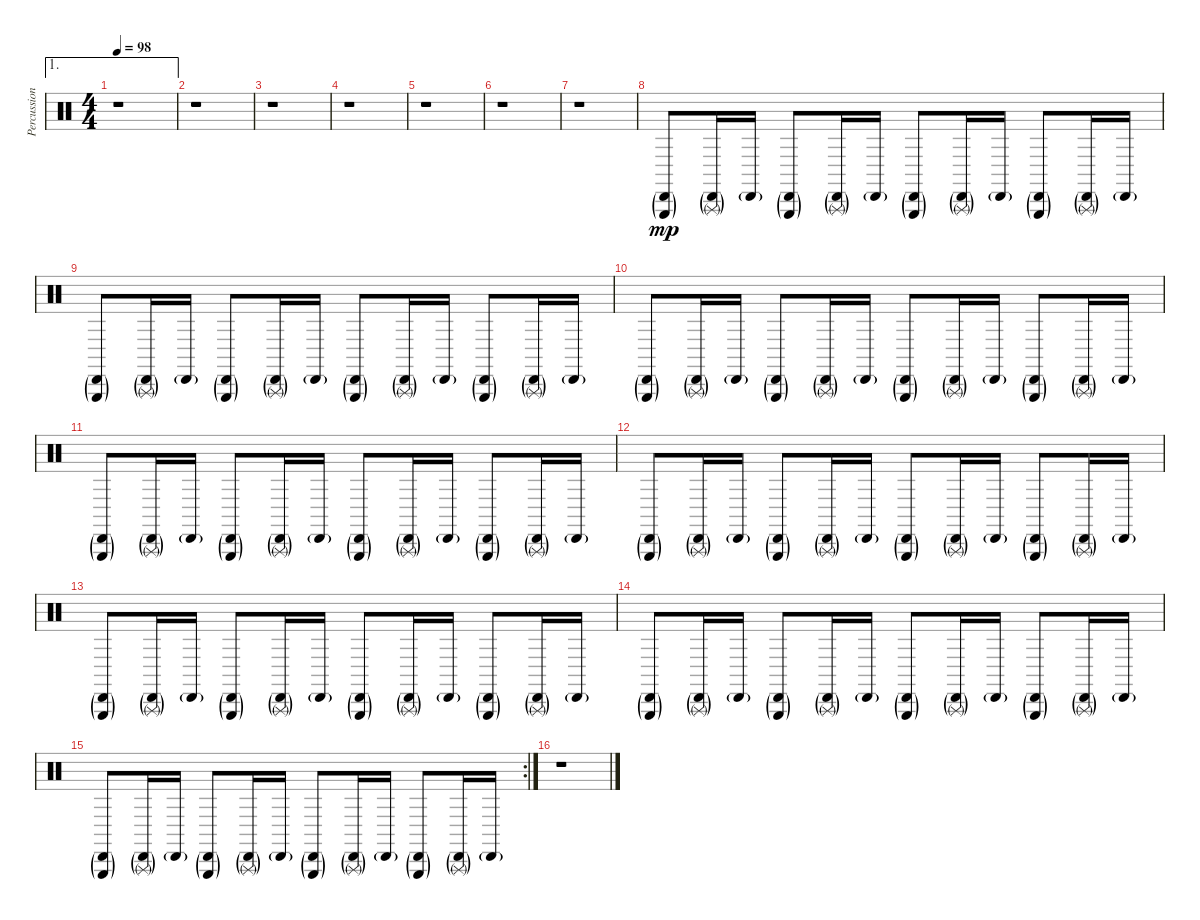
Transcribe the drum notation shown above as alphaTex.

\track ("Percussion" "Percussion") {instrument percussion}
\staff {score}
\articulation defaults
\ae 1
\ts (4 4)
\tempo 98
\clef neutral
\ks c
r.1{dy mp} |
r.1 |
r.1 |
r.1 |
r.1 |
r.1 |
r.1 |
("Cabasa (hit)"{g} "Triangle (hit)"{g}).8 ("Cabasa (hit)"{g} "Triangle (rnute)"{g}).16 "Cabasa (hit)"{g}.16 ("Cabasa (hit)"{g} "Triangle (hit)"{g}).8 ("Cabasa (hit)"{g} "Triangle (rnute)"{g}).16 "Cabasa (hit)"{g}.16 ("Cabasa (hit)"{g} "Triangle (hit)"{g}).8 ("Cabasa (hit)"{g} "Triangle (rnute)"{g}).16 "Cabasa (hit)"{g}.16 ("Cabasa (hit)"{g} "Triangle (hit)"{g}).8 ("Cabasa (hit)"{g} "Triangle (rnute)"{g}).16 "Cabasa (hit)"{g}.16 |
("Cabasa (hit)"{g} "Triangle (hit)"{g}).8 ("Cabasa (hit)"{g} "Triangle (rnute)"{g}).16 "Cabasa (hit)"{g}.16 ("Cabasa (hit)"{g} "Triangle (hit)"{g}).8 ("Cabasa (hit)"{g} "Triangle (rnute)"{g}).16 "Cabasa (hit)"{g}.16 ("Cabasa (hit)"{g} "Triangle (hit)"{g}).8 ("Cabasa (hit)"{g} "Triangle (rnute)"{g}).16 "Cabasa (hit)"{g}.16 ("Cabasa (hit)"{g} "Triangle (hit)"{g}).8 ("Cabasa (hit)"{g} "Triangle (rnute)"{g}).16 "Cabasa (hit)"{g}.16 |
("Cabasa (hit)"{g} "Triangle (hit)"{g}).8 ("Cabasa (hit)"{g} "Triangle (rnute)"{g}).16 "Cabasa (hit)"{g}.16 ("Cabasa (hit)"{g} "Triangle (hit)"{g}).8 ("Cabasa (hit)"{g} "Triangle (rnute)"{g}).16 "Cabasa (hit)"{g}.16 ("Cabasa (hit)"{g} "Triangle (hit)"{g}).8 ("Cabasa (hit)"{g} "Triangle (rnute)"{g}).16 "Cabasa (hit)"{g}.16 ("Cabasa (hit)"{g} "Triangle (hit)"{g}).8 ("Cabasa (hit)"{g} "Triangle (rnute)"{g}).16 "Cabasa (hit)"{g}.16 |
("Cabasa (hit)"{g} "Triangle (hit)"{g}).8 ("Cabasa (hit)"{g} "Triangle (rnute)"{g}).16 "Cabasa (hit)"{g}.16 ("Cabasa (hit)"{g} "Triangle (hit)"{g}).8 ("Cabasa (hit)"{g} "Triangle (rnute)"{g}).16 "Cabasa (hit)"{g}.16 ("Cabasa (hit)"{g} "Triangle (hit)"{g}).8 ("Cabasa (hit)"{g} "Triangle (rnute)"{g}).16 "Cabasa (hit)"{g}.16 ("Cabasa (hit)"{g} "Triangle (hit)"{g}).8 ("Cabasa (hit)"{g} "Triangle (rnute)"{g}).16 "Cabasa (hit)"{g}.16 |
("Cabasa (hit)"{g} "Triangle (hit)"{g}).8 ("Cabasa (hit)"{g} "Triangle (rnute)"{g}).16 "Cabasa (hit)"{g}.16 ("Cabasa (hit)"{g} "Triangle (hit)"{g}).8 ("Cabasa (hit)"{g} "Triangle (rnute)"{g}).16 "Cabasa (hit)"{g}.16 ("Cabasa (hit)"{g} "Triangle (hit)"{g}).8 ("Cabasa (hit)"{g} "Triangle (rnute)"{g}).16 "Cabasa (hit)"{g}.16 ("Cabasa (hit)"{g} "Triangle (hit)"{g}).8 ("Cabasa (hit)"{g} "Triangle (rnute)"{g}).16 "Cabasa (hit)"{g}.16 |
("Cabasa (hit)"{g} "Triangle (hit)"{g}).8 ("Cabasa (hit)"{g} "Triangle (rnute)"{g}).16 "Cabasa (hit)"{g}.16 ("Cabasa (hit)"{g} "Triangle (hit)"{g}).8 ("Cabasa (hit)"{g} "Triangle (rnute)"{g}).16 "Cabasa (hit)"{g}.16 ("Cabasa (hit)"{g} "Triangle (hit)"{g}).8 ("Cabasa (hit)"{g} "Triangle (rnute)"{g}).16 "Cabasa (hit)"{g}.16 ("Cabasa (hit)"{g} "Triangle (hit)"{g}).8 ("Cabasa (hit)"{g} "Triangle (rnute)"{g}).16 "Cabasa (hit)"{g}.16 |
("Cabasa (hit)"{g} "Triangle (hit)"{g}).8 ("Cabasa (hit)"{g} "Triangle (rnute)"{g}).16 "Cabasa (hit)"{g}.16 ("Cabasa (hit)"{g} "Triangle (hit)"{g}).8 ("Cabasa (hit)"{g} "Triangle (rnute)"{g}).16 "Cabasa (hit)"{g}.16 ("Cabasa (hit)"{g} "Triangle (hit)"{g}).8 ("Cabasa (hit)"{g} "Triangle (rnute)"{g}).16 "Cabasa (hit)"{g}.16 ("Cabasa (hit)"{g} "Triangle (hit)"{g}).8 ("Cabasa (hit)"{g} "Triangle (rnute)"{g}).16 "Cabasa (hit)"{g}.16 |
\rc 2
("Cabasa (hit)"{g} "Triangle (hit)"{g}).8 ("Cabasa (hit)"{g} "Triangle (rnute)"{g}).16 "Cabasa (hit)"{g}.16 ("Cabasa (hit)"{g} "Triangle (hit)"{g}).8 ("Cabasa (hit)"{g} "Triangle (rnute)"{g}).16 "Cabasa (hit)"{g}.16 ("Cabasa (hit)"{g} "Triangle (hit)"{g}).8 ("Cabasa (hit)"{g} "Triangle (rnute)"{g}).16 "Cabasa (hit)"{g}.16 ("Cabasa (hit)"{g} "Triangle (hit)"{g}).8 ("Cabasa (hit)"{g} "Triangle (rnute)"{g}).16 "Cabasa (hit)"{g}.16 |
r.1
